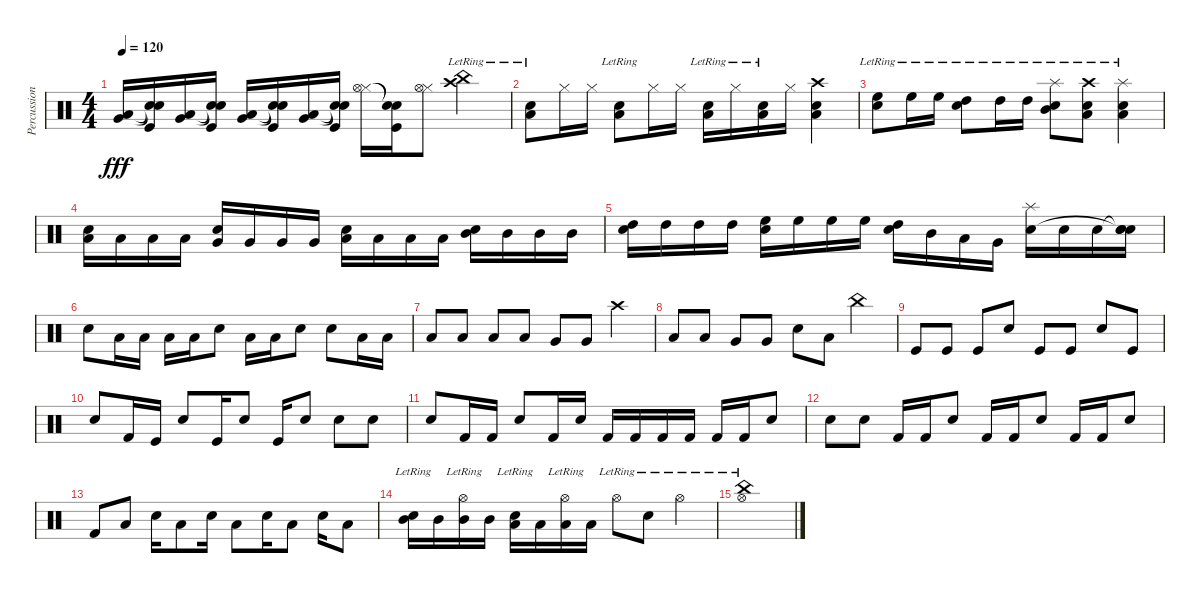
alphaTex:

\track ("Percussion" "Percussion") {instrument percussion}
\staff {score}
\articulation defaults
\ts (4 4)
\tempo 120
\clef neutral
\ks c
("Low Floor Tom (hit)" "Very Low Tom (hit)").16{dy fff} ("Snare (hit)"{t} "Snare (hit)"{t} "Kick (hit)").16 ("Low Floor Tom (hit)" "Very Low Tom (hit)").16 ("Snare (hit)"{t} "Snare (hit)"{t} "Kick (hit)").16 ("Low Floor Tom (hit)" "Very Low Tom (hit)").16 ("Snare (hit)"{t} "Snare (hit)"{t} "Kick (hit)").16 ("Low Floor Tom (hit)" "Very Low Tom (hit)").16 ("Snare (hit)"{t} "Snare (hit)"{t} "Kick (hit)").16 ("Hi-Hat (closed)" "Hi-Hat (open)").16 ("Snare (hit)"{t} "Snare (hit)"{t} "Kick (hit)").16 ("Hi-Hat (closed)" "Hi-Hat (open)").8 ("Crash high (hit)"{lr} "China (hit)"{lr}).4 |
("Low Tom (hit)"{lr} "Snare (hit) 2").8 "Hi-Hat (closed)".16 "Hi-Hat (closed)".16 ("Low Tom (hit)"{lr} "Snare (hit) 2").8 "Hi-Hat (closed)".16 "Hi-Hat (closed)".16 ("Low Tom (hit)"{lr} "Snare (hit) 2").16 "Hi-Hat (closed)"{lr}.16 ("Low Tom (hit)"{lr} "Snare (hit) 2").16 "Hi-Hat (closed)".16 ("Crash high (hit)" "Low Tom (hit)" "Snare (hit) 2").4 |
("High Floor Tom (hit)"{lr} "Snare (hit) 2").8 "High Floor Tom (hit)"{lr}.16 "High Floor Tom (hit)"{lr}.16 ("High Tom (hit)"{lr} "Snare (hit) 2").8 "High Tom (hit)"{lr}.16 "High Tom (hit)"{lr}.16 ("Splash (hit)" "Mid Tom (hit)"{lr} "Snare (hit) 2").8 ("Crash high (hit)" "Low Tom (hit)"{lr} "Snare (hit) 2").8 ("Splash (hit)" "Low Floor Tom (hit)"{lr} "Snare (hit) 2").4 |
("Low Floor Tom (hit)" "Snare (hit) 2").16 "Low Floor Tom (hit)".16 "Low Floor Tom (hit)".16 "Low Floor Tom (hit)".16 ("Very Low Tom (hit)" "Snare (hit) 2").16 "Very Low Tom (hit)".16 "Very Low Tom (hit)".16 "Very Low Tom (hit)".16 ("Low Tom (hit)" "Snare (hit) 2").16 "Low Tom (hit)".16 "Low Tom (hit)".16 "Low Tom (hit)".16 ("Mid Tom (hit)" "Snare (hit) 2").16 "Mid Tom (hit)".16 "Mid Tom (hit)".16 "Mid Tom (hit)".16 |
("High Tom (hit)" "Snare (hit) 2").16 "High Tom (hit)".16 "High Tom (hit)".16 "High Tom (hit)".16 ("High Floor Tom (hit)" "Snare (hit) 2").16 "High Floor Tom (hit)".16 "High Floor Tom (hit)".16 "High Floor Tom (hit)".16 ("High Tom (hit)" "Snare (hit) 2").16 "Mid Tom (hit)".16 "Low Tom (hit)".16 "Very Low Tom (hit)".16 ("Splash (hit)" "Snare (hit) 2").16 "Snare (hit) 2".16 "Snare (hit) 2".16 ("Snare (hit)"{t} "Snare (hit)"{t} "Snare (hit) 2").16 |
"Snare (hit) 2".8 "Low Tom (hit)".16 "Low Tom (hit)".16 "Low Tom (hit)".16 "Low Tom (hit)".16 "Snare (hit) 2".8 "Low Tom (hit)".16 "Low Tom (hit)".16 "Snare (hit) 2".8 "Snare (hit) 2".8 "Low Tom (hit)".16 "Low Tom (hit)".16 |
"Low Floor Tom (hit)".8 "Low Floor Tom (hit)".8 "Low Floor Tom (hit)".8 "Low Floor Tom (hit)".8 "Very Low Tom (hit)".8 "Very Low Tom (hit)".8 "Crash high (hit)".4 |
"Low Tom (hit)".8 "Low Tom (hit)".8 "Very Low Tom (hit)".8 "Very Low Tom (hit)".8 "Snare (hit) 2".8 "Low Floor Tom (hit)".8 "China (hit)".4 |
"Kick (hit)".8 "Kick (hit)".8 "Kick (hit)".8 "Snare (hit) 2".8 "Kick (hit)".8 "Kick (hit)".8 "Snare (hit) 2".8 "Kick (hit)".8 |
"Snare (hit) 2".8 "Kick (hit) 2".16 "Kick (hit)".16 "Snare (hit) 2".8 "Kick (hit)".16 "Snare (hit) 2".8 "Kick (hit)".16 "Snare (hit) 2".8 "Snare (hit) 2".8 "Snare (hit) 2".8 |
"Snare (hit) 2".8 "Kick (hit) 2".16 "Kick (hit) 2".16 "Snare (hit) 2".8 "Kick (hit) 2".16 "Snare (hit) 2".16 "Kick (hit) 2".16 "Kick (hit) 2".16 "Kick (hit) 2".16 "Kick (hit) 2".16 "Kick (hit) 2".16 "Kick (hit) 2".16 "Snare (hit) 2".8 |
"Snare (hit) 2".8 "Snare (hit) 2".8 "Kick (hit) 2".16 "Kick (hit) 2".16 "Snare (hit) 2".8 "Kick (hit) 2".16 "Kick (hit) 2".16 "Snare (hit) 2".8 "Kick (hit) 2".16 "Kick (hit) 2".16 "Snare (hit) 2".8 |
"Kick (hit) 2".8 "Low Floor Tom (hit)".8 "Snare (hit) 2".16 "Low Floor Tom (hit)".8 "Snare (hit) 2".16 "Low Floor Tom (hit)".8 "Snare (hit) 2".16 "Low Floor Tom (hit)".8 "Snare (hit) 2".16 "Low Floor Tom (hit)".8 |
("Mid Tom (hit)" "Snare (hit) 2"{lr}).16 "Mid Tom (hit)".16 ("Mid Tom (hit)" "Hi-Hat (open)"{lr}).16 "Mid Tom (hit)".16 ("Low Tom (hit)" "Snare (hit) 2"{lr}).16 "Low Tom (hit)".16 ("Low Tom (hit)" "Hi-Hat (open)"{lr}).16 "Low Tom (hit)".16 "Hi-Hat (open)"{lr}.8 "Snare (hit) 2"{lr}.8 "Hi-Hat (open)"{lr}.4 |
("China (hit)"{lr} "Hi-Hat (open)"{lr}).1
